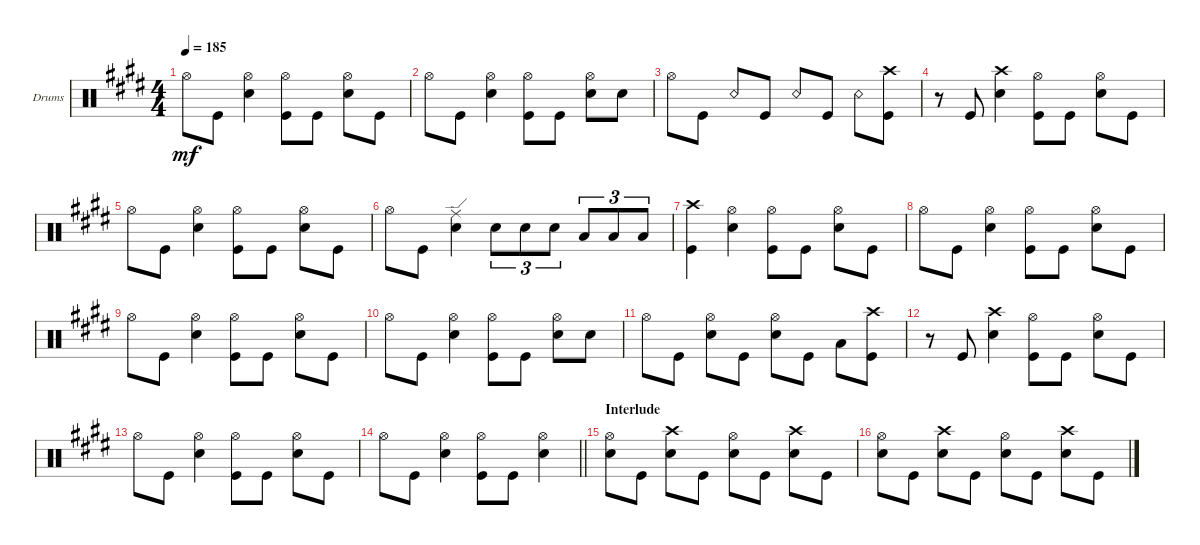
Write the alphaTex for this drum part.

\defaultSystemsLayout 4
\bracketExtendMode groupsimilarinstruments
\firstSystemTrackNameOrientation horizontal
\otherSystemsTrackNameOrientation horizontal
\track ("Drums" "Drums") {instrument percussion}
\staff {score}
\articulation defaults
\ts (4 4)
\tempo 185
\clef neutral
\ks e "Hi-Hat (open)".8{dy mf} "Kick (hit)".8
("Snare (hit) 2" "Hi-Hat (open)").4 ("Kick (hit)" "Hi-Hat (open)").8 "Kick (hit)".8 ("Snare (hit) 2" "Hi-Hat (open)").8 "Kick (hit)".8 |
"Hi-Hat (open)".8 "Kick (hit)".8 ("Snare (hit) 2" "Hi-Hat (open)").4 ("Kick (hit)" "Hi-Hat (open)").8 "Kick (hit)".8 ("Snare (hit) 2" "Hi-Hat (open)").8 "Snare (hit) 2".8 |
"Hi-Hat (open)".8 "Kick (hit)".8 "Snare (rim shot)".8 "Kick (hit)".8 "Snare (rim shot)".8 "Kick (hit)".8 "Snare (rim shot)".8 ("Kick (hit)" "Crash high (hit)").8 |
r.8 "Kick (hit)".8 ("Snare (hit) 2" "Crash high (hit)").4 ("Kick (hit)" "Hi-Hat (open)").8 "Kick (hit)".8 ("Snare (hit) 2" "Hi-Hat (open)").8 "Kick (hit)".8 |
"Hi-Hat (open)".8 "Kick (hit)".8 ("Snare (hit) 2" "Hi-Hat (open)").4 ("Kick (hit)" "Hi-Hat (open)").8 "Kick (hit)".8 ("Snare (hit) 2" "Hi-Hat (open)").8 "Kick (hit)".8 |
"Hi-Hat (open)".8 "Kick (hit)".8 ("Snare (hit) 2" "Ride (edge)").4 "Snare (hit) 2".8{tu (3 2)} "Snare (hit) 2".8{tu (3 2)} "Snare (hit) 2".8{tu (3 2)} "Low Tom (hit)".8{tu (3 2)} "Low Tom (hit)".8{tu (3 2)} "Low Tom (hit)".8{tu (3 2)} |
("Kick (hit)" "Crash high (hit)").4 ("Snare (hit) 2" "Hi-Hat (open)").4 ("Kick (hit)" "Hi-Hat (open)").8 "Kick (hit)".8 ("Snare (hit) 2" "Hi-Hat (open)").8 "Kick (hit)".8 |
"Hi-Hat (open)".8 "Kick (hit)".8 ("Snare (hit) 2" "Hi-Hat (open)").4 ("Kick (hit)" "Hi-Hat (open)").8 "Kick (hit)".8 ("Snare (hit) 2" "Hi-Hat (open)").8 "Kick (hit)".8 |
"Hi-Hat (open)".8 "Kick (hit)".8 ("Snare (hit) 2" "Hi-Hat (open)").4 ("Kick (hit)" "Hi-Hat (open)").8 "Kick (hit)".8 ("Snare (hit) 2" "Hi-Hat (open)").8 "Kick (hit)".8 |
"Hi-Hat (open)".8 "Kick (hit)".8 ("Snare (hit) 2" "Hi-Hat (open)").4 ("Kick (hit)" "Hi-Hat (open)").8 "Kick (hit)".8 ("Snare (hit) 2" "Hi-Hat (open)").8 "Snare (hit) 2".8 |
"Hi-Hat (open)".8 "Kick (hit)".8 ("Snare (hit) 2" "Hi-Hat (open)").8 "Kick (hit)".8 ("Snare (hit) 2" "Hi-Hat (open)").8 "Kick (hit)".8 "Low Tom (hit)".8 ("Kick (hit)" "Crash high (hit)").8 |
r.8 "Kick (hit)".8 ("Snare (hit) 2" "Crash high (hit)").4 ("Kick (hit)" "Hi-Hat (open)").8 "Kick (hit)".8 ("Snare (hit) 2" "Hi-Hat (open)").8 "Kick (hit)".8 |
"Hi-Hat (open)".8 "Kick (hit)".8 ("Snare (hit) 2" "Hi-Hat (open)").4 ("Kick (hit)" "Hi-Hat (open)").8 "Kick (hit)".8 ("Snare (hit) 2" "Hi-Hat (open)").8 "Kick (hit)".8 |
\barLineRight lightlight "Hi-Hat (open)".8 "Kick (hit)".8
("Snare (hit) 2" "Hi-Hat (open)").4 ("Kick (hit)" "Hi-Hat (open)").8 "Kick (hit)".8 ("Snare (hit) 2" "Hi-Hat (open)").4 |
\section ("" "Interlude")
("Snare (hit) 2" "Hi-Hat (open)").8 "Kick (hit)".8 ("Snare (hit) 2" "Crash high (hit)").8 "Kick (hit)".8 ("Snare (hit) 2" "Hi-Hat (open)").8 "Kick (hit)".8 ("Snare (hit) 2" "Crash high (hit)").8 "Kick (hit)".8 |
("Snare (hit) 2" "Hi-Hat (open)").8 "Kick (hit)".8 ("Snare (hit) 2" "Crash high (hit)").8 "Kick (hit)".8 ("Snare (hit) 2" "Hi-Hat (open)").8 "Kick (hit)".8 ("Snare (hit) 2" "Crash high (hit)").8 "Kick (hit)".8
